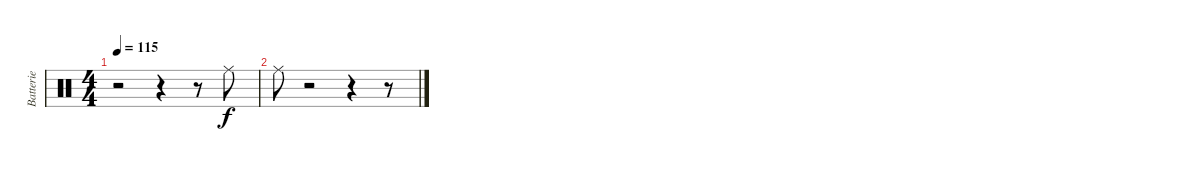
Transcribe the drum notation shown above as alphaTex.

\track ("Batterie" "Batterie") {instrument percussion}
\staff {score}
\articulation defaults
\ts (4 4)
\tempo 115
\clef neutral
\ks c
r.2{dy f} r.4 r.8 "Ride (middle)".8 |
"Ride (middle)".8 r.2 r.4 r.8
